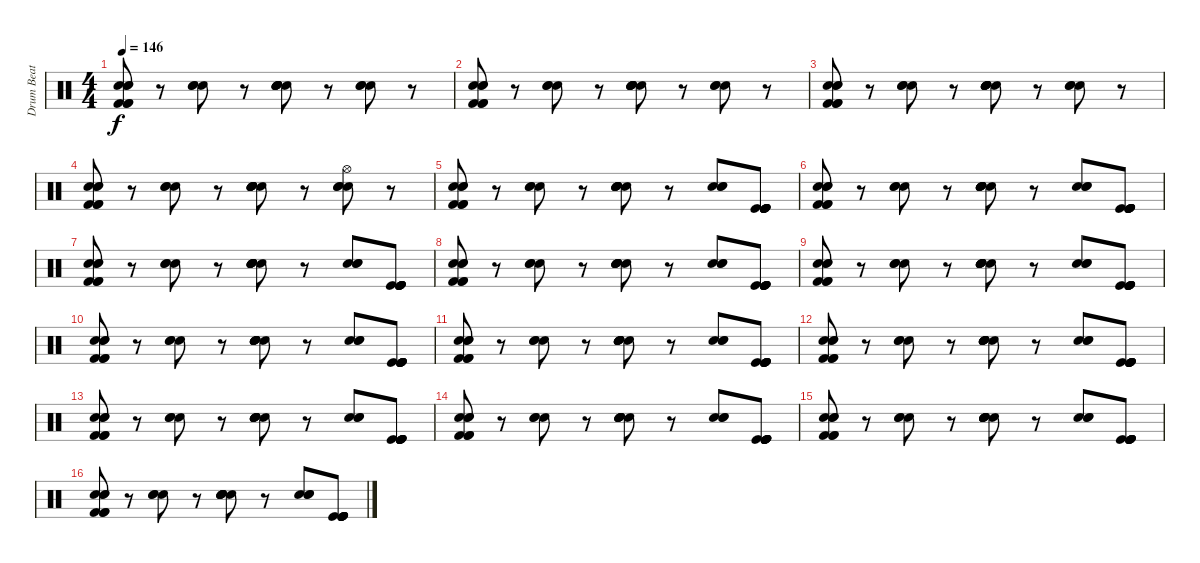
\track ("Drum Beat" "Drum Beat") {instrument percussion}
\staff {score}
\articulation defaults
\ts (4 4)
\tempo 146
\clef neutral
\ks c
("Hand Clap (hit)" "Hand Clap (hit)" "Hand Clap (hit)" "Kick (hit) 2" "Kick (hit) 2" "Kick (hit) 2").8{dy f} r.8 ("Hand Clap (hit)" "Hand Clap (hit)" "Hand Clap (hit)").8 r.8 ("Hand Clap (hit)" "Hand Clap (hit)" "Hand Clap (hit)" "Electric Snare (hit)" "Electric Snare (hit)" "Electric Snare (hit)").8 r.8 ("Hand Clap (hit)" "Hand Clap (hit)" "Hand Clap (hit)").8 r.8 |
("Hand Clap (hit)" "Hand Clap (hit)" "Hand Clap (hit)" "Kick (hit) 2" "Kick (hit) 2" "Kick (hit) 2").8 r.8 ("Hand Clap (hit)" "Hand Clap (hit)" "Hand Clap (hit)").8 r.8 ("Hand Clap (hit)" "Hand Clap (hit)" "Hand Clap (hit)" "Electric Snare (hit)" "Electric Snare (hit)" "Electric Snare (hit)").8 r.8 ("Hand Clap (hit)" "Hand Clap (hit)" "Hand Clap (hit)").8 r.8 |
("Hand Clap (hit)" "Hand Clap (hit)" "Hand Clap (hit)" "Kick (hit) 2" "Kick (hit) 2" "Kick (hit) 2").8 r.8 ("Hand Clap (hit)" "Hand Clap (hit)" "Hand Clap (hit)").8 r.8 ("Hand Clap (hit)" "Hand Clap (hit)" "Hand Clap (hit)" "Electric Snare (hit)" "Electric Snare (hit)" "Electric Snare (hit)").8 r.8 ("Hand Clap (hit)" "Hand Clap (hit)" "Hand Clap (hit)").8 r.8 |
("Hand Clap (hit)" "Hand Clap (hit)" "Hand Clap (hit)" "Kick (hit) 2" "Kick (hit) 2" "Kick (hit) 2").8 r.8 ("Hand Clap (hit)" "Hand Clap (hit)" "Hand Clap (hit)").8 r.8 ("Hand Clap (hit)" "Hand Clap (hit)" "Hand Clap (hit)" "Electric Snare (hit)" "Electric Snare (hit)" "Electric Snare (hit)").8 r.8 ("Hand Clap (hit)" "Hand Clap (hit)" "Hand Clap (hit)" "Hi-Hat (open)").8 r.8 |
("Hand Clap (hit)" "Hand Clap (hit)" "Hand Clap (hit)" "Kick (hit) 2" "Kick (hit) 2" "Kick (hit) 2").8 r.8 ("Hand Clap (hit)" "Hand Clap (hit)" "Hand Clap (hit)").8 r.8 ("Hand Clap (hit)" "Hand Clap (hit)" "Hand Clap (hit)" "Electric Snare (hit)" "Electric Snare (hit)" "Electric Snare (hit)").8 r.8 ("Hand Clap (hit)" "Hand Clap (hit)" "Hand Clap (hit)").8 ("Kick (hit)" "Kick (hit)" "Kick (hit)" "Kick (hit)" "Kick (hit)" "Kick (hit)").8 |
("Hand Clap (hit)" "Hand Clap (hit)" "Hand Clap (hit)" "Kick (hit) 2" "Kick (hit) 2" "Kick (hit) 2").8 r.8 ("Hand Clap (hit)" "Hand Clap (hit)" "Hand Clap (hit)").8 r.8 ("Hand Clap (hit)" "Hand Clap (hit)" "Hand Clap (hit)" "Electric Snare (hit)" "Electric Snare (hit)" "Electric Snare (hit)").8 r.8 ("Hand Clap (hit)" "Hand Clap (hit)" "Hand Clap (hit)").8 ("Kick (hit)" "Kick (hit)" "Kick (hit)" "Kick (hit)" "Kick (hit)" "Kick (hit)").8 |
("Hand Clap (hit)" "Hand Clap (hit)" "Hand Clap (hit)" "Kick (hit) 2" "Kick (hit) 2" "Kick (hit) 2").8 r.8 ("Hand Clap (hit)" "Hand Clap (hit)" "Hand Clap (hit)").8 r.8 ("Hand Clap (hit)" "Hand Clap (hit)" "Hand Clap (hit)" "Electric Snare (hit)" "Electric Snare (hit)" "Electric Snare (hit)").8 r.8 ("Hand Clap (hit)" "Hand Clap (hit)" "Hand Clap (hit)").8 ("Kick (hit)" "Kick (hit)" "Kick (hit)" "Kick (hit)" "Kick (hit)" "Kick (hit)").8 |
("Hand Clap (hit)" "Hand Clap (hit)" "Hand Clap (hit)" "Kick (hit) 2" "Kick (hit) 2" "Kick (hit) 2").8 r.8 ("Hand Clap (hit)" "Hand Clap (hit)" "Hand Clap (hit)").8 r.8 ("Hand Clap (hit)" "Hand Clap (hit)" "Hand Clap (hit)" "Electric Snare (hit)" "Electric Snare (hit)" "Electric Snare (hit)").8 r.8 ("Hand Clap (hit)" "Hand Clap (hit)" "Hand Clap (hit)").8 ("Kick (hit)" "Kick (hit)" "Kick (hit)" "Kick (hit)" "Kick (hit)" "Kick (hit)").8 |
("Hand Clap (hit)" "Hand Clap (hit)" "Hand Clap (hit)" "Kick (hit) 2" "Kick (hit) 2" "Kick (hit) 2").8 r.8 ("Hand Clap (hit)" "Hand Clap (hit)" "Hand Clap (hit)").8 r.8 ("Hand Clap (hit)" "Hand Clap (hit)" "Hand Clap (hit)" "Electric Snare (hit)" "Electric Snare (hit)" "Electric Snare (hit)").8 r.8 ("Hand Clap (hit)" "Hand Clap (hit)" "Hand Clap (hit)").8 ("Kick (hit)" "Kick (hit)" "Kick (hit)" "Kick (hit)" "Kick (hit)" "Kick (hit)").8 |
("Hand Clap (hit)" "Hand Clap (hit)" "Hand Clap (hit)" "Kick (hit) 2" "Kick (hit) 2" "Kick (hit) 2").8 r.8 ("Hand Clap (hit)" "Hand Clap (hit)" "Hand Clap (hit)").8 r.8 ("Hand Clap (hit)" "Hand Clap (hit)" "Hand Clap (hit)" "Electric Snare (hit)" "Electric Snare (hit)" "Electric Snare (hit)").8 r.8 ("Hand Clap (hit)" "Hand Clap (hit)" "Hand Clap (hit)").8 ("Kick (hit)" "Kick (hit)" "Kick (hit)" "Kick (hit)" "Kick (hit)" "Kick (hit)").8 |
("Hand Clap (hit)" "Hand Clap (hit)" "Hand Clap (hit)" "Kick (hit) 2" "Kick (hit) 2" "Kick (hit) 2").8 r.8 ("Hand Clap (hit)" "Hand Clap (hit)" "Hand Clap (hit)").8 r.8 ("Hand Clap (hit)" "Hand Clap (hit)" "Hand Clap (hit)" "Electric Snare (hit)" "Electric Snare (hit)" "Electric Snare (hit)").8 r.8 ("Hand Clap (hit)" "Hand Clap (hit)" "Hand Clap (hit)").8 ("Kick (hit)" "Kick (hit)" "Kick (hit)" "Kick (hit)" "Kick (hit)" "Kick (hit)").8 |
("Hand Clap (hit)" "Hand Clap (hit)" "Hand Clap (hit)" "Kick (hit) 2" "Kick (hit) 2" "Kick (hit) 2").8 r.8 ("Hand Clap (hit)" "Hand Clap (hit)" "Hand Clap (hit)").8 r.8 ("Hand Clap (hit)" "Hand Clap (hit)" "Hand Clap (hit)" "Electric Snare (hit)" "Electric Snare (hit)" "Electric Snare (hit)").8 r.8 ("Hand Clap (hit)" "Hand Clap (hit)" "Hand Clap (hit)").8 ("Kick (hit)" "Kick (hit)" "Kick (hit)" "Kick (hit)" "Kick (hit)" "Kick (hit)").8 |
("Hand Clap (hit)" "Hand Clap (hit)" "Hand Clap (hit)" "Kick (hit) 2" "Kick (hit) 2" "Kick (hit) 2").8 r.8 ("Hand Clap (hit)" "Hand Clap (hit)" "Hand Clap (hit)").8 r.8 ("Hand Clap (hit)" "Hand Clap (hit)" "Hand Clap (hit)" "Electric Snare (hit)" "Electric Snare (hit)" "Electric Snare (hit)").8 r.8 ("Hand Clap (hit)" "Hand Clap (hit)" "Hand Clap (hit)").8 ("Kick (hit)" "Kick (hit)" "Kick (hit)" "Kick (hit)" "Kick (hit)" "Kick (hit)").8 |
("Hand Clap (hit)" "Hand Clap (hit)" "Hand Clap (hit)" "Kick (hit) 2" "Kick (hit) 2" "Kick (hit) 2").8 r.8 ("Hand Clap (hit)" "Hand Clap (hit)" "Hand Clap (hit)").8 r.8 ("Hand Clap (hit)" "Hand Clap (hit)" "Hand Clap (hit)" "Electric Snare (hit)" "Electric Snare (hit)" "Electric Snare (hit)").8 r.8 ("Hand Clap (hit)" "Hand Clap (hit)" "Hand Clap (hit)").8 ("Kick (hit)" "Kick (hit)" "Kick (hit)" "Kick (hit)" "Kick (hit)" "Kick (hit)").8 |
("Hand Clap (hit)" "Hand Clap (hit)" "Hand Clap (hit)" "Kick (hit) 2" "Kick (hit) 2" "Kick (hit) 2").8 r.8 ("Hand Clap (hit)" "Hand Clap (hit)" "Hand Clap (hit)").8 r.8 ("Hand Clap (hit)" "Hand Clap (hit)" "Hand Clap (hit)" "Electric Snare (hit)" "Electric Snare (hit)" "Electric Snare (hit)").8 r.8 ("Hand Clap (hit)" "Hand Clap (hit)" "Hand Clap (hit)").8 ("Kick (hit)" "Kick (hit)" "Kick (hit)" "Kick (hit)" "Kick (hit)" "Kick (hit)").8 |
("Hand Clap (hit)" "Hand Clap (hit)" "Hand Clap (hit)" "Kick (hit) 2" "Kick (hit) 2" "Kick (hit) 2").8 r.8 ("Hand Clap (hit)" "Hand Clap (hit)" "Hand Clap (hit)").8 r.8 ("Hand Clap (hit)" "Hand Clap (hit)" "Hand Clap (hit)" "Electric Snare (hit)" "Electric Snare (hit)" "Electric Snare (hit)").8 r.8 ("Hand Clap (hit)" "Hand Clap (hit)" "Hand Clap (hit)").8 ("Kick (hit)" "Kick (hit)" "Kick (hit)" "Kick (hit)" "Kick (hit)" "Kick (hit)").8
